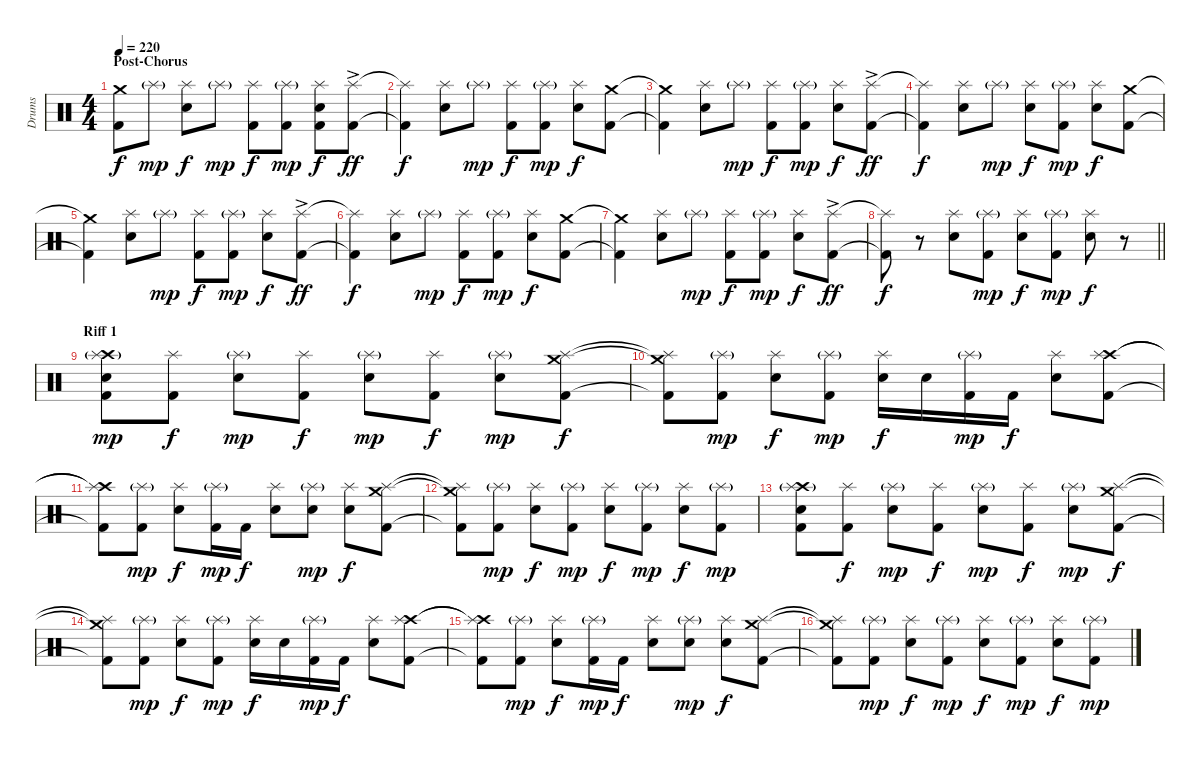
\track ("Drums" "Drums") {instrument percussion}
\staff {score}
\articulation defaults
\ts (4 4)
\section ("" "Post-Chorus")
\tempo 220
\clef neutral
\ks c
("Crash medium (hit)" "Kick (hit) 2").8{dy f} "Splash (hit)"{g}.8{dy mp} ("Splash (hit)" "Electric Snare (hit)").8{dy f} "Splash (hit)"{g}.8{dy mp} ("Splash (hit)" "Kick (hit) 2").8{dy f} ("Splash (hit)"{g} "Kick (hit) 2").8{dy mp} ("Splash (hit)" "Electric Snare (hit)" "Kick (hit) 2").8{dy f} ("Splash (hit)"{ac} "Kick (hit) 2").8{dy ff} |
("Splash (hit)"{t} "Kick (hit) 2"{t}).4{dy f} ("Splash (hit)" "Electric Snare (hit)").8 "Splash (hit)"{g}.8{dy mp} ("Splash (hit)" "Kick (hit) 2").8{dy f} ("Splash (hit)"{g} "Kick (hit) 2").8{dy mp} ("Splash (hit)" "Electric Snare (hit)").8{dy f} ("Crash medium (hit)" "Kick (hit) 2").8 |
("Crash medium (hit)"{t} "Kick (hit) 2"{t}).4 ("Splash (hit)" "Electric Snare (hit)").8 "Splash (hit)"{g}.8{dy mp} ("Splash (hit)" "Kick (hit) 2").8{dy f} ("Splash (hit)"{g} "Kick (hit) 2").8{dy mp} ("Splash (hit)" "Electric Snare (hit)").8{dy f} ("Splash (hit)"{ac} "Kick (hit) 2").8{dy ff} |
("Splash (hit)"{t} "Kick (hit) 2"{t}).4{dy f} ("Splash (hit)" "Electric Snare (hit)").8 "Splash (hit)"{g}.8{dy mp} ("Splash (hit)" "Electric Snare (hit)").8{dy f} ("Splash (hit)"{g} "Kick (hit) 2").8{dy mp} ("Splash (hit)" "Electric Snare (hit)").8{dy f} ("Crash medium (hit)" "Kick (hit) 2").8 |
("Crash medium (hit)"{t} "Kick (hit) 2"{t}).4 ("Splash (hit)" "Electric Snare (hit)").8 "Splash (hit)"{g}.8{dy mp} ("Splash (hit)" "Kick (hit) 2").8{dy f} ("Splash (hit)"{g} "Kick (hit) 2").8{dy mp} ("Splash (hit)" "Electric Snare (hit)").8{dy f} ("Splash (hit)"{ac} "Kick (hit) 2").8{dy ff} |
("Splash (hit)"{t} "Kick (hit) 2"{t}).4{dy f} ("Splash (hit)" "Electric Snare (hit)").8 "Splash (hit)"{g}.8{dy mp} ("Splash (hit)" "Kick (hit) 2").8{dy f} ("Splash (hit)"{g} "Kick (hit) 2").8{dy mp} ("Splash (hit)" "Electric Snare (hit)").8{dy f} ("Crash medium (hit)" "Kick (hit) 2").8 |
("Crash medium (hit)"{t} "Kick (hit) 2"{t}).4 ("Splash (hit)" "Electric Snare (hit)").8 "Splash (hit)"{g}.8{dy mp} ("Splash (hit)" "Kick (hit) 2").8{dy f} ("Splash (hit)"{g} "Kick (hit) 2").8{dy mp} ("Splash (hit)" "Electric Snare (hit)").8{dy f} ("Splash (hit)"{ac} "Kick (hit) 2").8{dy ff} |
\barLineRight lightlight
("Splash (hit)"{t} "Kick (hit) 2"{t}).8{dy f} r.8 ("Splash (hit)" "Electric Snare (hit)").8 ("Splash (hit)"{g} "Kick (hit) 2").8{dy mp} ("Splash (hit)" "Electric Snare (hit)").8{dy f} ("Splash (hit)"{g} "Kick (hit) 2").8{dy mp} ("Splash (hit)" "Electric Snare (hit)").8{dy f} r.8 |
\section ("" "Riff 1")
("Crash high (hit)" "Splash (hit)"{g} "Electric Snare (hit)" "Kick (hit) 2").8{dy mp} ("Splash (hit)" "Kick (hit) 2").8{dy f} ("Splash (hit)"{g} "Electric Snare (hit)").8{dy mp} ("Splash (hit)" "Kick (hit) 2").8{dy f} ("Splash (hit)"{g} "Electric Snare (hit)").8{dy mp} ("Splash (hit)" "Kick (hit) 2").8{dy f} ("Splash (hit)"{g} "Electric Snare (hit)").8{dy mp} ("Crash medium (hit)" "Splash (hit)" "Kick (hit) 2").8{dy f} |
("Crash medium (hit)"{t} "Splash (hit)"{t} "Kick (hit) 2"{t}).8 ("Splash (hit)"{g} "Kick (hit) 2").8{dy mp} ("Splash (hit)" "Electric Snare (hit)").8{dy f} ("Splash (hit)"{g} "Kick (hit) 2").8{dy mp} ("Splash (hit)" "Electric Snare (hit)").16{dy f} "Electric Snare (hit)".16 ("Splash (hit)"{g} "Kick (hit) 2").16{dy mp} "Kick (hit) 2".16{dy f} ("Splash (hit)" "Electric Snare (hit)").8 ("Crash high (hit)" "Splash (hit)" "Kick (hit) 2").8 |
("Crash high (hit)"{t} "Splash (hit)"{t} "Kick (hit) 2"{t}).8 ("Splash (hit)"{g} "Kick (hit) 2").8{dy mp} ("Splash (hit)" "Electric Snare (hit)").8{dy f} ("Splash (hit)"{g} "Kick (hit) 2").16{dy mp} "Kick (hit) 2".16{dy f} ("Splash (hit)" "Electric Snare (hit)").8 ("Splash (hit)"{g} "Electric Snare (hit)").8{dy mp} ("Splash (hit)" "Electric Snare (hit)").8{dy f} ("Crash medium (hit)" "Splash (hit)" "Kick (hit) 2").8 |
("Crash medium (hit)"{t} "Splash (hit)"{t} "Kick (hit) 2"{t}).8 ("Splash (hit)"{g} "Kick (hit) 2").8{dy mp} ("Splash (hit)" "Electric Snare (hit)").8{dy f} ("Splash (hit)"{g} "Kick (hit) 2").8{dy mp} ("Splash (hit)" "Electric Snare (hit)").8{dy f} ("Splash (hit)"{g} "Kick (hit) 2").8{dy mp} ("Splash (hit)" "Electric Snare (hit)").8{dy f} ("Splash (hit)"{g} "Kick (hit) 2").8{dy mp} |
("Crash high (hit)" "Splash (hit)"{g} "Electric Snare (hit)" "Kick (hit) 2").8 ("Splash (hit)" "Kick (hit) 2").8{dy f} ("Splash (hit)"{g} "Electric Snare (hit)").8{dy mp} ("Splash (hit)" "Kick (hit) 2").8{dy f} ("Splash (hit)"{g} "Electric Snare (hit)").8{dy mp} ("Splash (hit)" "Kick (hit) 2").8{dy f} ("Splash (hit)"{g} "Electric Snare (hit)").8{dy mp} ("Crash medium (hit)" "Splash (hit)" "Kick (hit) 2").8{dy f} |
("Crash medium (hit)"{t} "Splash (hit)"{t} "Kick (hit) 2"{t}).8 ("Splash (hit)"{g} "Kick (hit) 2").8{dy mp} ("Splash (hit)" "Electric Snare (hit)").8{dy f} ("Splash (hit)"{g} "Kick (hit) 2").8{dy mp} ("Splash (hit)" "Electric Snare (hit)").16{dy f} "Electric Snare (hit)".16 ("Splash (hit)"{g} "Kick (hit) 2").16{dy mp} "Kick (hit) 2".16{dy f} ("Splash (hit)" "Electric Snare (hit)").8 ("Crash high (hit)" "Splash (hit)" "Kick (hit) 2").8 |
("Crash high (hit)"{t} "Splash (hit)"{t} "Kick (hit) 2"{t}).8 ("Splash (hit)"{g} "Kick (hit) 2").8{dy mp} ("Splash (hit)" "Electric Snare (hit)").8{dy f} ("Splash (hit)"{g} "Kick (hit) 2").16{dy mp} "Kick (hit) 2".16{dy f} ("Splash (hit)" "Electric Snare (hit)").8 ("Splash (hit)"{g} "Electric Snare (hit)").8{dy mp} ("Splash (hit)" "Electric Snare (hit)").8{dy f} ("Crash medium (hit)" "Splash (hit)" "Kick (hit) 2").8 |
("Crash medium (hit)"{t} "Splash (hit)"{t} "Kick (hit) 2"{t}).8 ("Splash (hit)"{g} "Kick (hit) 2").8{dy mp} ("Splash (hit)" "Electric Snare (hit)").8{dy f} ("Splash (hit)"{g} "Kick (hit) 2").8{dy mp} ("Splash (hit)" "Electric Snare (hit)").8{dy f} ("Splash (hit)"{g} "Kick (hit) 2").8{dy mp} ("Splash (hit)" "Electric Snare (hit)").8{dy f} ("Splash (hit)"{g} "Kick (hit) 2").8{dy mp}
